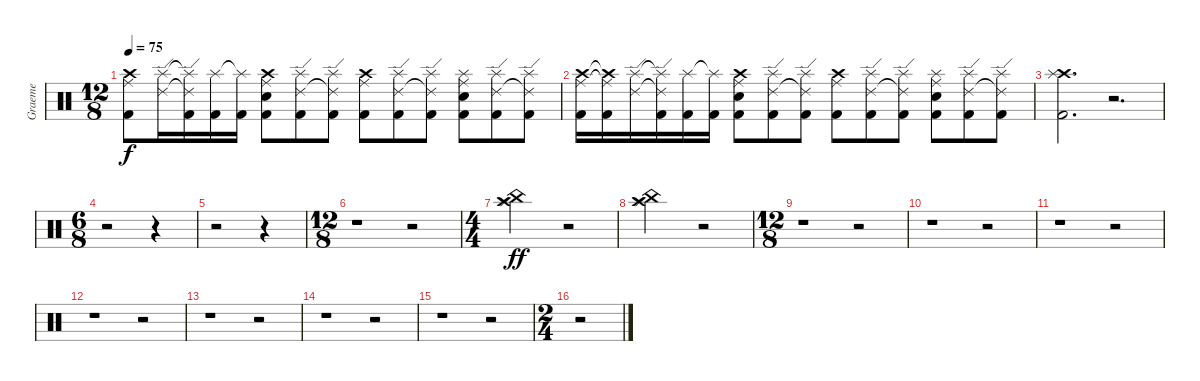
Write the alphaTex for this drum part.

\track ("Graeme" "Graeme") {instrument percussion}
\staff {score}
\articulation defaults
\ts (12 8)
\tempo 75
\clef neutral
\ks c
("Crash high (hit)" "Ride (middle)" "Kick (hit) 2").8{dy f} ("Splash (hit)" "Ride (edge) 2").16 ("Splash (hit)"{t} "Ride (edge) 2"{t} "Kick (hit) 2").16 ("Splash (hit)" "Kick (hit) 2").16 ("Splash (hit)"{t} "Kick (hit) 2").16 ("Crash high (hit)" "Ride (middle)" "Electric Snare (hit)" "Kick (hit) 2").8 ("Splash (hit)" "Ride (edge) 2" "Kick (hit) 2").8 ("Splash (hit)" "Ride (edge) 2"{t} "Kick (hit) 2").8 ("Crash high (hit)" "Ride (middle)" "Kick (hit) 2").8 ("Splash (hit)" "Ride (edge) 2" "Kick (hit) 2").8 ("Splash (hit)" "Ride (edge) 2"{t} "Kick (hit) 2").8 ("Splash (hit)" "Ride (middle)" "Electric Snare (hit)" "Kick (hit) 2").8 ("Splash (hit)" "Ride (edge) 2" "Kick (hit) 2").8 ("Splash (hit)" "Ride (edge) 2"{t} "Kick (hit) 2").8 |
("Crash high (hit)" "Ride (middle)" "Kick (hit) 2").16 ("Crash high (hit)"{t} "Ride (middle)"{t} "Kick (hit) 2").16 ("Splash (hit)" "Ride (edge) 2").16 ("Splash (hit)"{t} "Ride (edge) 2"{t} "Kick (hit) 2").16 ("Splash (hit)" "Kick (hit) 2").16 ("Splash (hit)"{t} "Kick (hit) 2").16 ("Crash high (hit)" "Ride (middle)" "Electric Snare (hit)" "Kick (hit) 2").8 ("Splash (hit)" "Ride (edge) 2" "Kick (hit) 2").8 ("Splash (hit)" "Ride (edge) 2"{t} "Kick (hit) 2").8 ("Crash high (hit)" "Ride (middle)" "Kick (hit) 2").8 ("Splash (hit)" "Ride (edge) 2" "Kick (hit) 2").8 ("Splash (hit)" "Ride (edge) 2"{t} "Kick (hit) 2").8 ("Splash (hit)" "Ride (middle)" "Electric Snare (hit)" "Kick (hit) 2").8 ("Splash (hit)" "Ride (edge) 2" "Kick (hit) 2").8 ("Splash (hit)" "Ride (edge) 2"{t} "Kick (hit) 2").8 |
("Crash high (hit)" "Splash (hit)" "Kick (hit) 2").2{d} r.2{d} |
\ts (6 8)
r.2 r.4 |
r.2 r.4 |
\ts (12 8)
r.1 r.2 |
\ts (4 4)
("China (hit)" "Crash high (hit)" "Splash (hit)").2{dy ff} r.2 |
("China (hit)" "Crash high (hit)" "Splash (hit)").2 r.2 |
\ts (12 8)
r.1 r.2 |
r.1 r.2 |
r.1 r.2 |
r.1 r.2 |
r.1 r.2 |
r.1 r.2 |
r.1 r.2 |
\ts (2 4)
r.2
